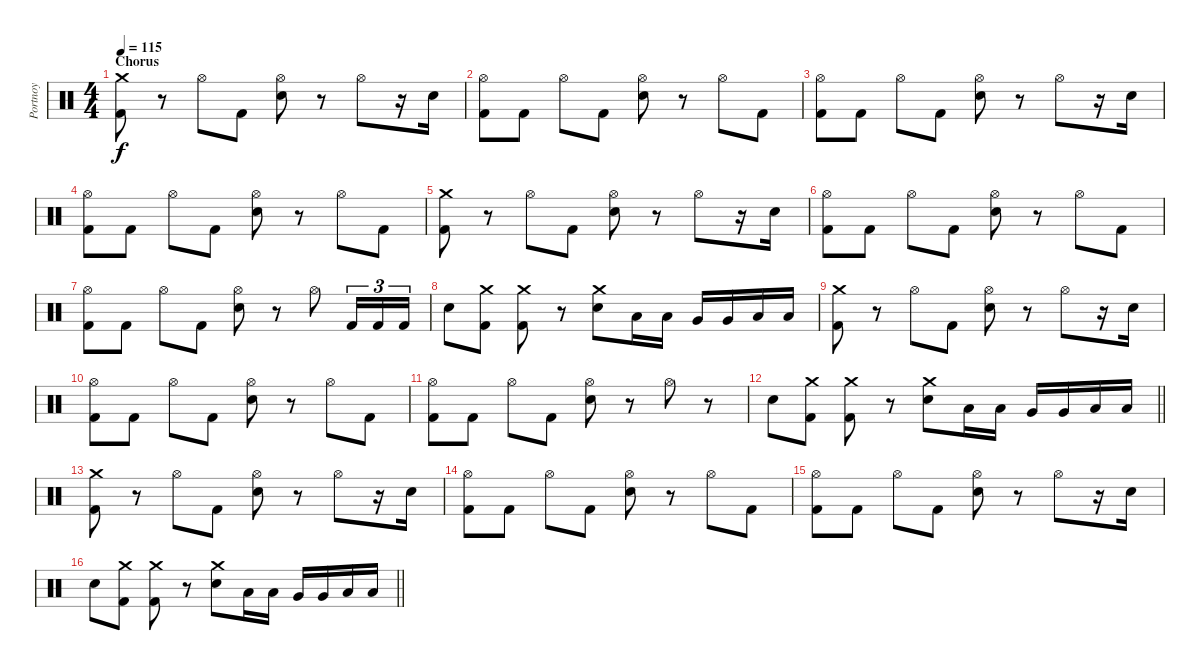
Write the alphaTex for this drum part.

\track ("Portnoy" "Portnoy") {instrument percussion}
\staff {score}
\articulation defaults
\ts (4 4)
\section ("" "Chorus")
\tempo 115
\clef neutral
\ks c
("Crash medium (hit)" "Kick (hit) 2").8{dy f} r.8 "Hi-Hat (open)".8 "Kick (hit) 2".8 ("Hi-Hat (open)" "Snare (hit) 2").8 r.8 "Hi-Hat (open)".8 r.16 "Snare (hit) 2".16 |
("Hi-Hat (open)" "Kick (hit) 2").8 "Kick (hit) 2".8 "Hi-Hat (open)".8 "Kick (hit) 2".8 ("Hi-Hat (open)" "Snare (hit) 2").8 r.8 "Hi-Hat (open)".8 "Kick (hit) 2".8 |
("Hi-Hat (open)" "Kick (hit) 2").8 "Kick (hit) 2".8 "Hi-Hat (open)".8 "Kick (hit) 2".8 ("Hi-Hat (open)" "Snare (hit) 2").8 r.8 "Hi-Hat (open)".8 r.16 "Snare (hit) 2".16 |
("Hi-Hat (open)" "Kick (hit) 2").8 "Kick (hit) 2".8 "Hi-Hat (open)".8 "Kick (hit) 2".8 ("Hi-Hat (open)" "Snare (hit) 2").8 r.8 "Hi-Hat (open)".8 "Kick (hit) 2".8 |
("Crash medium (hit)" "Kick (hit) 2").8 r.8 "Hi-Hat (open)".8 "Kick (hit) 2".8 ("Hi-Hat (open)" "Snare (hit) 2").8 r.8 "Hi-Hat (open)".8 r.16 "Snare (hit) 2".16 |
("Hi-Hat (open)" "Kick (hit) 2").8 "Kick (hit) 2".8 "Hi-Hat (open)".8 "Kick (hit) 2".8 ("Hi-Hat (open)" "Snare (hit) 2").8 r.8 "Hi-Hat (open)".8 "Kick (hit) 2".8 |
("Hi-Hat (open)" "Kick (hit) 2").8 "Kick (hit) 2".8 "Hi-Hat (open)".8 "Kick (hit) 2".8 ("Hi-Hat (open)" "Snare (hit) 2").8 r.8 "Hi-Hat (open)".8 "Kick (hit) 2".16{tu (3 2)} "Kick (hit) 2".16{tu (3 2)} "Kick (hit) 2".16{tu (3 2)} |
"Snare (hit) 2".8 ("Crash medium (hit)" "Kick (hit) 2").8 ("Crash medium (hit)" "Kick (hit) 2").8 r.8 ("Crash medium (hit)" "Snare (hit) 2").8 "Low Tom (hit)".16 "Low Tom (hit)".16 "Very Low Tom (hit)".16 "Very Low Tom (hit)".16 "Low Floor Tom (hit)".16 "Low Floor Tom (hit)".16 |
("Crash medium (hit)" "Kick (hit) 2").8 r.8 "Hi-Hat (open)".8 "Kick (hit) 2".8 ("Hi-Hat (open)" "Snare (hit) 2").8 r.8 "Hi-Hat (open)".8 r.16 "Snare (hit) 2".16 |
("Hi-Hat (open)" "Kick (hit) 2").8 "Kick (hit) 2".8 "Hi-Hat (open)".8 "Kick (hit) 2".8 ("Hi-Hat (open)" "Snare (hit) 2").8 r.8 "Hi-Hat (open)".8 "Kick (hit) 2".8 |
("Hi-Hat (open)" "Kick (hit) 2").8 "Kick (hit) 2".8 "Hi-Hat (open)".8 "Kick (hit) 2".8 ("Hi-Hat (open)" "Snare (hit) 2").8 r.8 "Hi-Hat (open)".8 r.8 |
\barLineRight lightlight "Snare (hit) 2".8
("Crash medium (hit)" "Kick (hit) 2").8 ("Crash medium (hit)" "Kick (hit) 2").8 r.8 ("Crash medium (hit)" "Snare (hit) 2").8 "Low Tom (hit)".16 "Low Tom (hit)".16 "Very Low Tom (hit)".16 "Very Low Tom (hit)".16 "Low Floor Tom (hit)".16 "Low Floor Tom (hit)".16 |
("Crash medium (hit)" "Kick (hit) 2").8 r.8 "Hi-Hat (open)".8 "Kick (hit) 2".8 ("Hi-Hat (open)" "Snare (hit) 2").8 r.8 "Hi-Hat (open)".8 r.16 "Snare (hit) 2".16 |
("Hi-Hat (open)" "Kick (hit) 2").8 "Kick (hit) 2".8 "Hi-Hat (open)".8 "Kick (hit) 2".8 ("Hi-Hat (open)" "Snare (hit) 2").8 r.8 "Hi-Hat (open)".8 "Kick (hit) 2".8 |
("Hi-Hat (open)" "Kick (hit) 2").8 "Kick (hit) 2".8 "Hi-Hat (open)".8 "Kick (hit) 2".8 ("Hi-Hat (open)" "Snare (hit) 2").8 r.8 "Hi-Hat (open)".8 r.16 "Snare (hit) 2".16 |
\barLineRight lightlight "Snare (hit) 2".8
("Crash medium (hit)" "Kick (hit) 2").8 ("Crash medium (hit)" "Kick (hit) 2").8 r.8 ("Crash medium (hit)" "Snare (hit) 2").8 "Low Tom (hit)".16 "Low Tom (hit)".16 "Very Low Tom (hit)".16 "Very Low Tom (hit)".16 "Low Floor Tom (hit)".16 "Low Floor Tom (hit)".16
